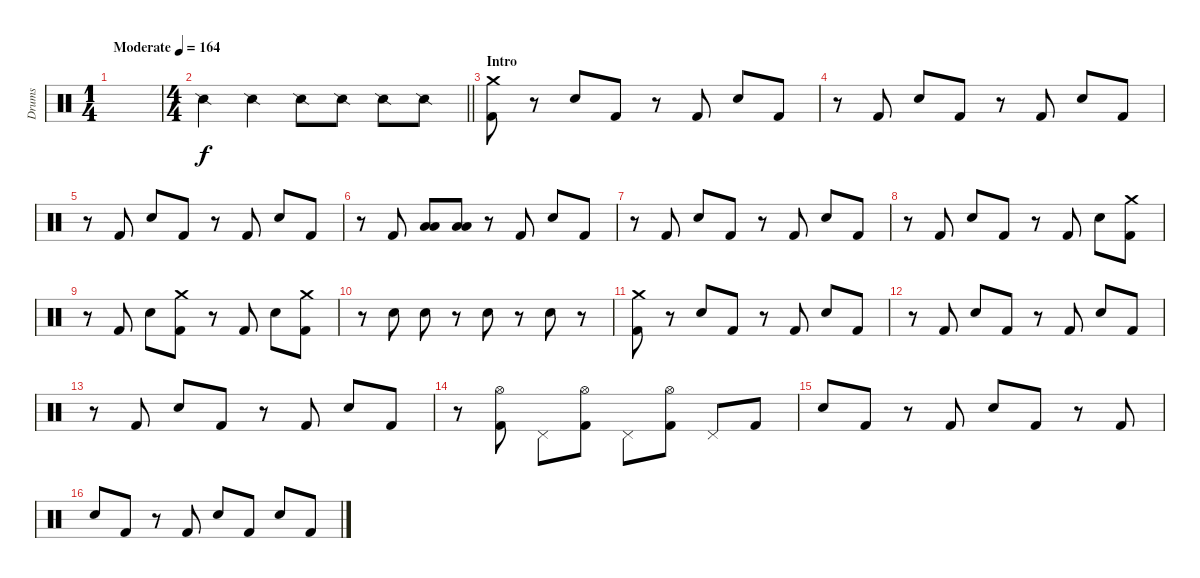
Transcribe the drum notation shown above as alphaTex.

\track ("Drums" "Drums") {instrument percussion}
\staff {score}
\articulation defaults
\ts (1 4)
\tempo (164 "Moderate")
\clef neutral
\ks c
|
\ts (4 4)
\barLineRight lightlight "Snare (side stick) 2".4 "Snare (side stick) 2".4 "Snare (side stick) 2".8 "Snare (side stick) 2".8 "Snare (side stick) 2".8 "Snare (side stick) 2".8
|
\section ("" "Intro")
("Crash medium (hit)" "Kick (hit) 2").8 r.8 "Snare (hit) 2".8 "Kick (hit) 2".8 r.8 "Kick (hit) 2".8 "Snare (hit) 2".8 "Kick (hit) 2".8 |
r.8 "Kick (hit) 2".8 "Snare (hit) 2".8 "Kick (hit) 2".8 r.8 "Kick (hit) 2".8 "Snare (hit) 2".8 "Kick (hit) 2".8 |
r.8 "Kick (hit) 2".8 "Snare (hit) 2".8 "Kick (hit) 2".8 r.8 "Kick (hit) 2".8 "Snare (hit) 2".8 "Kick (hit) 2".8 |
r.8 "Kick (hit) 2".8 ("Low Floor Tom (hit)" "Low Floor Tom (hit)").8 ("Low Floor Tom (hit)" "Low Floor Tom (hit)").8 r.8 "Kick (hit) 2".8 "Snare (hit) 2".8 "Kick (hit) 2".8 |
r.8 "Kick (hit) 2".8 "Snare (hit) 2".8 "Kick (hit) 2".8 r.8 "Kick (hit) 2".8 "Snare (hit) 2".8 "Kick (hit) 2".8 |
r.8 "Kick (hit) 2".8 "Snare (hit) 2".8 "Kick (hit) 2".8 r.8 "Kick (hit) 2".8 "Snare (hit) 2".8 ("Crash medium (hit)" "Kick (hit) 2").8 |
r.8 "Kick (hit) 2".8 "Snare (hit) 2".8 ("Crash medium (hit)" "Kick (hit) 2").8 r.8 "Kick (hit) 2".8 "Snare (hit) 2".8 ("Crash medium (hit)" "Kick (hit) 2").8 |
r.8 "Snare (hit) 2".8 "Snare (hit) 2".8 r.8 "Snare (hit) 2".8 r.8 "Snare (hit) 2".8 r.8 |
("Crash medium (hit)" "Kick (hit) 2").8 r.8 "Snare (hit) 2".8 "Kick (hit) 2".8 r.8 "Kick (hit) 2".8 "Snare (hit) 2".8 "Kick (hit) 2".8 |
r.8 "Kick (hit) 2".8 "Snare (hit) 2".8 "Kick (hit) 2".8 r.8 "Kick (hit) 2".8 "Snare (hit) 2".8 "Kick (hit) 2".8 |
r.8 "Kick (hit) 2".8 "Snare (hit) 2".8 "Kick (hit) 2".8 r.8 "Kick (hit) 2".8 "Snare (hit) 2".8 "Kick (hit) 2".8 |
r.8 ("Hi-Hat (open)" "Kick (hit) 2").8 "Pedal Hi-Hat (hit)".8 ("Hi-Hat (open)" "Kick (hit) 2").8 "Pedal Hi-Hat (hit)".8 ("Hi-Hat (open)" "Kick (hit) 2").8 "Pedal Hi-Hat (hit)".8 "Kick (hit) 2".8 |
"Snare (hit) 2".8 "Kick (hit) 2".8 r.8 "Kick (hit) 2".8 "Snare (hit) 2".8 "Kick (hit) 2".8 r.8 "Kick (hit) 2".8 |
"Snare (hit) 2".8 "Kick (hit) 2".8 r.8 "Kick (hit) 2".8 "Snare (hit) 2".8 "Kick (hit) 2".8 "Snare (hit) 2".8 "Kick (hit) 2".8
